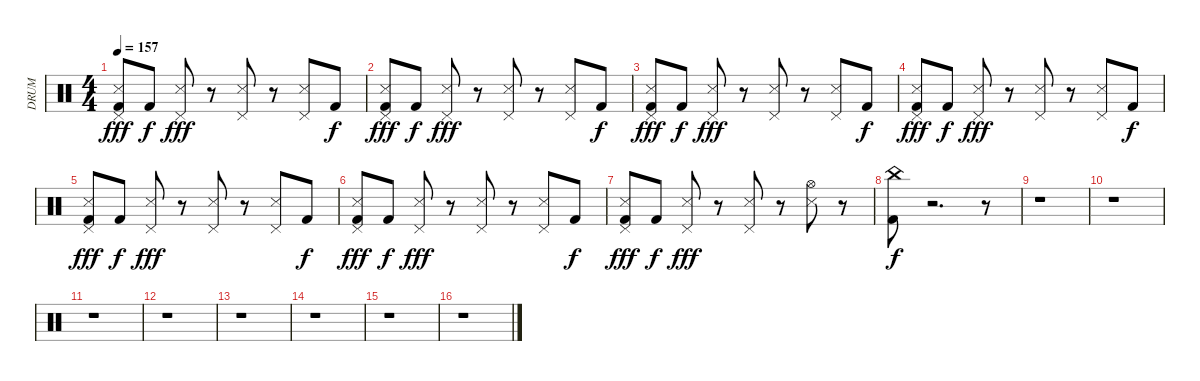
\track ("DRUM" "DRUM") {instrument percussion}
\staff {score}
\articulation defaults
\ts (4 4)
\tempo 157
\clef neutral
\ks c
("Pedal Hi-Hat (hit)" "Snare (side stick) 3" "Kick (hit) 2").8{dy fff} "Kick (hit) 2".8{dy f} ("Pedal Hi-Hat (hit)" "Snare (side stick) 3").8{dy fff} r.8 ("Pedal Hi-Hat (hit)" "Snare (side stick) 3").8 r.8 ("Pedal Hi-Hat (hit)" "Snare (side stick) 3").8 "Kick (hit) 2".8{dy f} |
("Pedal Hi-Hat (hit)" "Snare (side stick) 3" "Kick (hit) 2").8{dy fff} "Kick (hit) 2".8{dy f} ("Pedal Hi-Hat (hit)" "Snare (side stick) 3").8{dy fff} r.8 ("Pedal Hi-Hat (hit)" "Snare (side stick) 3").8 r.8 ("Pedal Hi-Hat (hit)" "Snare (side stick) 3").8 "Kick (hit) 2".8{dy f} |
("Pedal Hi-Hat (hit)" "Snare (side stick) 3" "Kick (hit) 2").8{dy fff} "Kick (hit) 2".8{dy f} ("Pedal Hi-Hat (hit)" "Snare (side stick) 3").8{dy fff} r.8 ("Pedal Hi-Hat (hit)" "Snare (side stick) 3").8 r.8 ("Pedal Hi-Hat (hit)" "Snare (side stick) 3").8 "Kick (hit) 2".8{dy f} |
("Pedal Hi-Hat (hit)" "Snare (side stick) 3" "Kick (hit) 2").8{dy fff} "Kick (hit) 2".8{dy f} ("Pedal Hi-Hat (hit)" "Snare (side stick) 3").8{dy fff} r.8 ("Pedal Hi-Hat (hit)" "Snare (side stick) 3").8 r.8 ("Pedal Hi-Hat (hit)" "Snare (side stick) 3").8 "Kick (hit) 2".8{dy f} |
("Pedal Hi-Hat (hit)" "Snare (side stick) 3" "Kick (hit) 2").8{dy fff} "Kick (hit) 2".8{dy f} ("Pedal Hi-Hat (hit)" "Snare (side stick) 3").8{dy fff} r.8 ("Pedal Hi-Hat (hit)" "Snare (side stick) 3").8 r.8 ("Pedal Hi-Hat (hit)" "Snare (side stick) 3").8 "Kick (hit) 2".8{dy f} |
("Pedal Hi-Hat (hit)" "Snare (side stick) 3" "Kick (hit) 2").8{dy fff} "Kick (hit) 2".8{dy f} ("Pedal Hi-Hat (hit)" "Snare (side stick) 3").8{dy fff} r.8 ("Pedal Hi-Hat (hit)" "Snare (side stick) 3").8 r.8 ("Pedal Hi-Hat (hit)" "Snare (side stick) 3").8 "Kick (hit) 2".8{dy f} |
("Pedal Hi-Hat (hit)" "Snare (side stick) 3" "Kick (hit) 2").8{dy fff} "Kick (hit) 2".8{dy f} ("Pedal Hi-Hat (hit)" "Snare (side stick) 3").8{dy fff} r.8 ("Pedal Hi-Hat (hit)" "Snare (side stick) 3").8 r.8 ("Hi-Hat (open)" "Snare (side stick) 3").8 r.8 |
("China (hit)" "Kick (hit) 2").8{dy f} r.2{d} r.8 |
r.1 |
r.1 |
r.1 |
r.1 |
r.1 |
r.1 |
r.1 |
r.1
